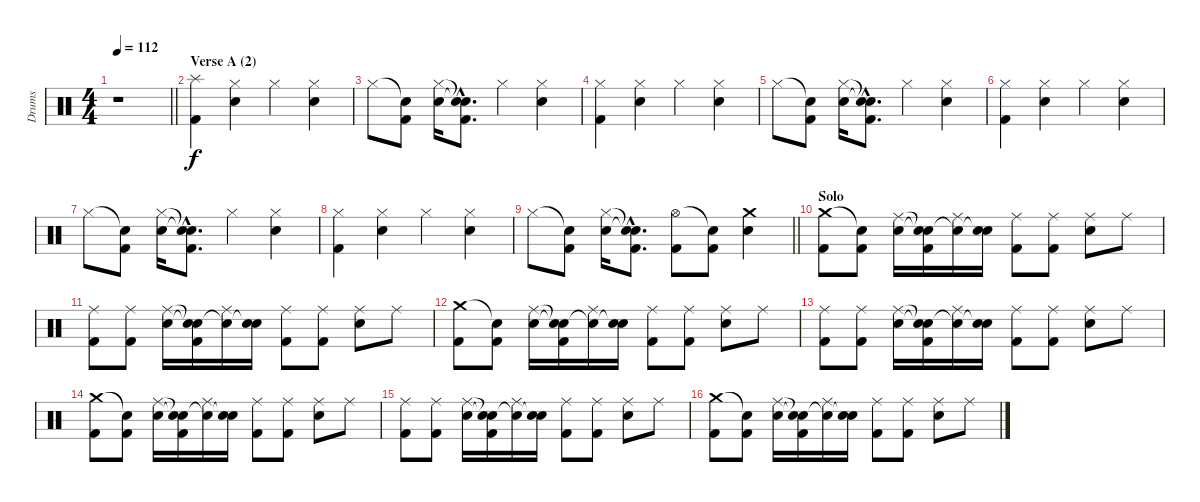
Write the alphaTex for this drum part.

\track ("Drums" "Drums") {instrument percussion}
\staff {score}
\articulation defaults
\ts (4 4)
\tempo 112
\clef neutral
\barLineRight lightlight
\ks c
r.1{dy f} |
\section ("" "Verse A (2)")
("Splash (hit)" "Kick (hit) 2").4 ("Hi-Hat (closed)" "Electric Snare (hit)").4 "Hi-Hat (closed)".4 ("Hi-Hat (closed)" "Electric Snare (hit)").4 |
"Hi-Hat (closed)".8 ("Snare (hit)"{t} "Kick (hit) 2").8 ("Hi-Hat (closed)" "Electric Snare (hit)").16 ("Snare (hit)"{hac t} "Snare (hit)"{hac t} "Kick (hit) 2"{hac}).8{d} "Hi-Hat (closed)".4 ("Hi-Hat (closed)" "Electric Snare (hit)").4 |
("Hi-Hat (closed)" "Kick (hit) 2").4 ("Hi-Hat (closed)" "Electric Snare (hit)").4 "Hi-Hat (closed)".4 ("Hi-Hat (closed)" "Electric Snare (hit)").4 |
"Hi-Hat (closed)".8 ("Snare (hit)"{t} "Kick (hit) 2").8 ("Hi-Hat (closed)" "Electric Snare (hit)").16 ("Snare (hit)"{hac t} "Snare (hit)"{hac t} "Kick (hit) 2"{hac}).8{d} "Hi-Hat (closed)".4 ("Hi-Hat (closed)" "Electric Snare (hit)").4 |
("Hi-Hat (closed)" "Kick (hit) 2").4 ("Hi-Hat (closed)" "Electric Snare (hit)").4 "Hi-Hat (closed)".4 ("Hi-Hat (closed)" "Electric Snare (hit)").4 |
"Hi-Hat (closed)".8 ("Snare (hit)"{t} "Kick (hit) 2").8 ("Hi-Hat (closed)" "Electric Snare (hit)").16 ("Snare (hit)"{hac t} "Snare (hit)"{hac t} "Kick (hit) 2"{hac}).8{d} "Hi-Hat (closed)".4 ("Hi-Hat (closed)" "Electric Snare (hit)").4 |
("Hi-Hat (closed)" "Kick (hit) 2").4 ("Hi-Hat (closed)" "Electric Snare (hit)").4 "Hi-Hat (closed)".4 ("Hi-Hat (closed)" "Electric Snare (hit)").4 |
\barLineRight lightlight "Hi-Hat (closed)".8
("Snare (hit)"{t} "Kick (hit) 2").8 ("Hi-Hat (closed)" "Electric Snare (hit)").16 ("Snare (hit)"{hac t} "Snare (hit)"{hac t} "Kick (hit) 2"{hac}).8{d} ("Hi-Hat (open)" "Kick (hit) 2").8 ("Snare (hit)"{t} "Kick (hit) 2").8 ("Crash medium (hit)" "Electric Snare (hit)").4 |
\section ("" "Solo")
("Crash medium (hit)" "Kick (hit) 2").8 ("Snare (hit)"{t} "Kick (hit) 2").8 ("Ride (middle)" "Electric Snare (hit)").16 ("Snare (hit)"{t} "Snare (hit)"{t} "Kick (hit) 2").16 ("Ride (middle)" "Snare (hit)"{t}).16 ("Electric Snare (hit)" "Snare (hit)"{t}).16 ("Ride (middle)" "Kick (hit) 2").8 ("Ride (middle)" "Kick (hit) 2").8 ("Ride (middle)" "Electric Snare (hit)").8 "Ride (middle)".8 |
("Ride (middle)" "Kick (hit) 2").8 ("Ride (middle)" "Kick (hit) 2").8 ("Ride (middle)" "Electric Snare (hit)").16 ("Snare (hit)"{t} "Snare (hit)"{t} "Kick (hit) 2").16 ("Ride (middle)" "Snare (hit)"{t}).16 ("Electric Snare (hit)" "Snare (hit)"{t}).16 ("Ride (middle)" "Kick (hit) 2").8 ("Ride (middle)" "Kick (hit) 2").8 ("Ride (middle)" "Electric Snare (hit)").8 "Ride (middle)".8 |
("Crash medium (hit)" "Kick (hit) 2").8 ("Snare (hit)"{t} "Kick (hit) 2").8 ("Ride (middle)" "Electric Snare (hit)").16 ("Snare (hit)"{t} "Snare (hit)"{t} "Kick (hit) 2").16 ("Ride (middle)" "Snare (hit)"{t}).16 ("Electric Snare (hit)" "Snare (hit)"{t}).16 ("Ride (middle)" "Kick (hit) 2").8 ("Ride (middle)" "Kick (hit) 2").8 ("Ride (middle)" "Electric Snare (hit)").8 "Ride (middle)".8 |
("Ride (middle)" "Kick (hit) 2").8 ("Ride (middle)" "Kick (hit) 2").8 ("Ride (middle)" "Electric Snare (hit)").16 ("Snare (hit)"{t} "Snare (hit)"{t} "Kick (hit) 2").16 ("Ride (middle)" "Snare (hit)"{t}).16 ("Electric Snare (hit)" "Snare (hit)"{t}).16 ("Ride (middle)" "Kick (hit) 2").8 ("Ride (middle)" "Kick (hit) 2").8 ("Ride (middle)" "Electric Snare (hit)").8 "Ride (middle)".8 |
("Crash medium (hit)" "Kick (hit) 2").8 ("Snare (hit)"{t} "Kick (hit) 2").8 ("Ride (middle)" "Electric Snare (hit)").16 ("Snare (hit)"{t} "Snare (hit)"{t} "Kick (hit) 2").16 ("Ride (middle)" "Snare (hit)"{t}).16 ("Electric Snare (hit)" "Snare (hit)"{t}).16 ("Ride (middle)" "Kick (hit) 2").8 ("Ride (middle)" "Kick (hit) 2").8 ("Ride (middle)" "Electric Snare (hit)").8 "Ride (middle)".8 |
("Ride (middle)" "Kick (hit) 2").8 ("Ride (middle)" "Kick (hit) 2").8 ("Ride (middle)" "Electric Snare (hit)").16 ("Snare (hit)"{t} "Snare (hit)"{t} "Kick (hit) 2").16 ("Ride (middle)" "Snare (hit)"{t}).16 ("Electric Snare (hit)" "Snare (hit)"{t}).16 ("Ride (middle)" "Kick (hit) 2").8 ("Ride (middle)" "Kick (hit) 2").8 ("Ride (middle)" "Electric Snare (hit)").8 "Ride (middle)".8 |
("Crash medium (hit)" "Kick (hit) 2").8 ("Snare (hit)"{t} "Kick (hit) 2").8 ("Ride (middle)" "Electric Snare (hit)").16 ("Snare (hit)"{t} "Snare (hit)"{t} "Kick (hit) 2").16 ("Ride (middle)" "Snare (hit)"{t}).16 ("Electric Snare (hit)" "Snare (hit)"{t}).16 ("Ride (middle)" "Kick (hit) 2").8 ("Ride (middle)" "Kick (hit) 2").8 ("Ride (middle)" "Electric Snare (hit)").8 "Ride (middle)".8
